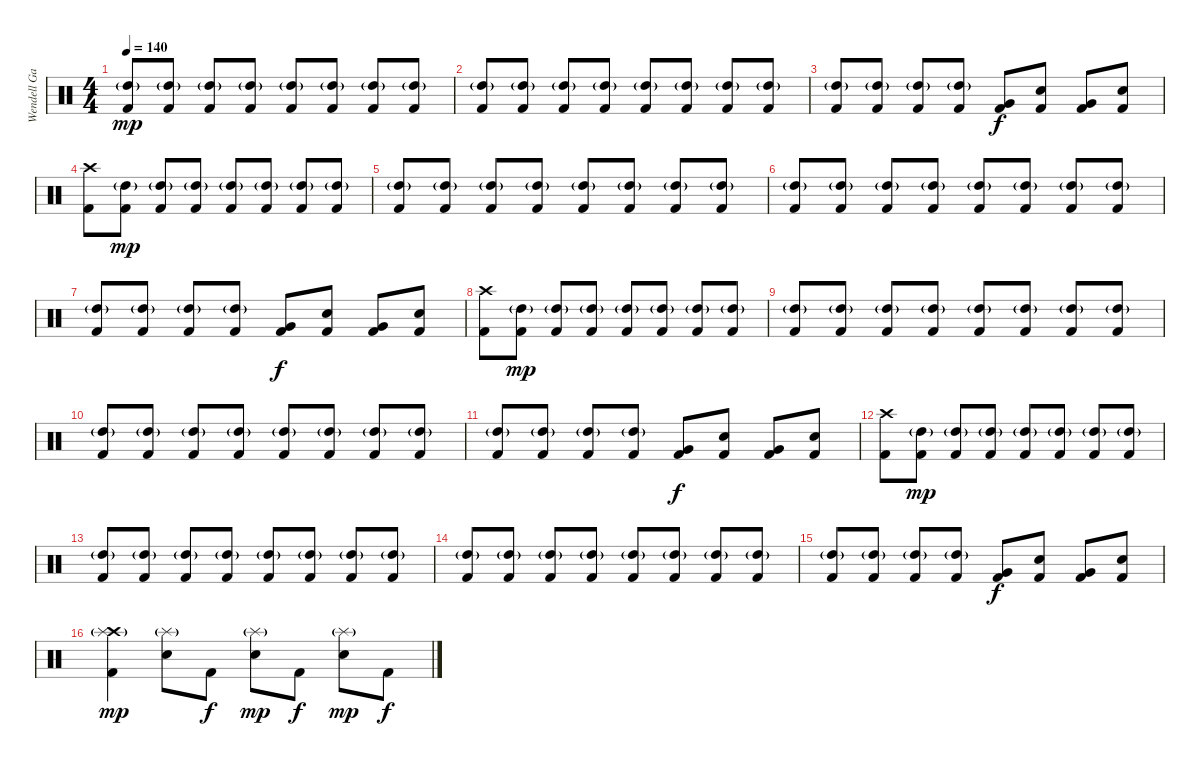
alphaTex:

\track ("Wendell Garcia(Drums)" "Wendell Ga") {instrument percussion}
\staff {score}
\articulation defaults
\ts (4 4)
\tempo 140
\clef neutral
\ks c
("High Tom (hit)"{g} "Kick (hit) 2").8{dy mp} ("High Tom (hit)"{g} "Kick (hit) 2").8 ("High Tom (hit)"{g} "Kick (hit) 2").8 ("High Tom (hit)"{g} "Kick (hit) 2").8 ("High Tom (hit)"{g} "Kick (hit) 2").8 ("High Tom (hit)"{g} "Kick (hit) 2").8 ("High Tom (hit)"{g} "Kick (hit) 2").8 ("High Tom (hit)"{g} "Kick (hit) 2").8 |
("High Tom (hit)"{g} "Kick (hit) 2").8 ("High Tom (hit)"{g} "Kick (hit) 2").8 ("High Tom (hit)"{g} "Kick (hit) 2").8 ("High Tom (hit)"{g} "Kick (hit) 2").8 ("High Tom (hit)"{g} "Kick (hit) 2").8 ("High Tom (hit)"{g} "Kick (hit) 2").8 ("High Tom (hit)"{g} "Kick (hit) 2").8 ("High Tom (hit)"{g} "Kick (hit) 2").8 |
("High Tom (hit)"{g} "Kick (hit) 2").8 ("High Tom (hit)"{g} "Kick (hit) 2").8 ("High Tom (hit)"{g} "Kick (hit) 2").8 ("High Tom (hit)"{g} "Kick (hit) 2").8 ("Very Low Tom (hit)" "Kick (hit) 2").8{dy f} ("Electric Snare (hit)" "Kick (hit) 2").8 ("Very Low Tom (hit)" "Kick (hit) 2").8 ("Electric Snare (hit)" "Kick (hit) 2").8 |
("Crash high (hit)" "Kick (hit) 2").8 ("High Tom (hit)"{g} "Kick (hit) 2").8{dy mp} ("High Tom (hit)"{g} "Kick (hit) 2").8 ("High Tom (hit)"{g} "Kick (hit) 2").8 ("High Tom (hit)"{g} "Kick (hit) 2").8 ("High Tom (hit)"{g} "Kick (hit) 2").8 ("High Tom (hit)"{g} "Kick (hit) 2").8 ("High Tom (hit)"{g} "Kick (hit) 2").8 |
("High Tom (hit)"{g} "Kick (hit) 2").8 ("High Tom (hit)"{g} "Kick (hit) 2").8 ("High Tom (hit)"{g} "Kick (hit) 2").8 ("High Tom (hit)"{g} "Kick (hit) 2").8 ("High Tom (hit)"{g} "Kick (hit) 2").8 ("High Tom (hit)"{g} "Kick (hit) 2").8 ("High Tom (hit)"{g} "Kick (hit) 2").8 ("High Tom (hit)"{g} "Kick (hit) 2").8 |
("High Tom (hit)"{g} "Kick (hit) 2").8 ("High Tom (hit)"{g} "Kick (hit) 2").8 ("High Tom (hit)"{g} "Kick (hit) 2").8 ("High Tom (hit)"{g} "Kick (hit) 2").8 ("High Tom (hit)"{g} "Kick (hit) 2").8 ("High Tom (hit)"{g} "Kick (hit) 2").8 ("High Tom (hit)"{g} "Kick (hit) 2").8 ("High Tom (hit)"{g} "Kick (hit) 2").8 |
("High Tom (hit)"{g} "Kick (hit) 2").8 ("High Tom (hit)"{g} "Kick (hit) 2").8 ("High Tom (hit)"{g} "Kick (hit) 2").8 ("High Tom (hit)"{g} "Kick (hit) 2").8 ("Very Low Tom (hit)" "Kick (hit) 2").8{dy f} ("Electric Snare (hit)" "Kick (hit) 2").8 ("Very Low Tom (hit)" "Kick (hit) 2").8 ("Electric Snare (hit)" "Kick (hit) 2").8 |
("Crash high (hit)" "Kick (hit) 2").8 ("High Tom (hit)"{g} "Kick (hit) 2").8{dy mp} ("High Tom (hit)"{g} "Kick (hit) 2").8 ("High Tom (hit)"{g} "Kick (hit) 2").8 ("High Tom (hit)"{g} "Kick (hit) 2").8 ("High Tom (hit)"{g} "Kick (hit) 2").8 ("High Tom (hit)"{g} "Kick (hit) 2").8 ("High Tom (hit)"{g} "Kick (hit) 2").8 |
("High Tom (hit)"{g} "Kick (hit) 2").8 ("High Tom (hit)"{g} "Kick (hit) 2").8 ("High Tom (hit)"{g} "Kick (hit) 2").8 ("High Tom (hit)"{g} "Kick (hit) 2").8 ("High Tom (hit)"{g} "Kick (hit) 2").8 ("High Tom (hit)"{g} "Kick (hit) 2").8 ("High Tom (hit)"{g} "Kick (hit) 2").8 ("High Tom (hit)"{g} "Kick (hit) 2").8 |
("High Tom (hit)"{g} "Kick (hit) 2").8 ("High Tom (hit)"{g} "Kick (hit) 2").8 ("High Tom (hit)"{g} "Kick (hit) 2").8 ("High Tom (hit)"{g} "Kick (hit) 2").8 ("High Tom (hit)"{g} "Kick (hit) 2").8 ("High Tom (hit)"{g} "Kick (hit) 2").8 ("High Tom (hit)"{g} "Kick (hit) 2").8 ("High Tom (hit)"{g} "Kick (hit) 2").8 |
("High Tom (hit)"{g} "Kick (hit) 2").8 ("High Tom (hit)"{g} "Kick (hit) 2").8 ("High Tom (hit)"{g} "Kick (hit) 2").8 ("High Tom (hit)"{g} "Kick (hit) 2").8 ("Very Low Tom (hit)" "Kick (hit) 2").8{dy f} ("Electric Snare (hit)" "Kick (hit) 2").8 ("Very Low Tom (hit)" "Kick (hit) 2").8 ("Electric Snare (hit)" "Kick (hit) 2").8 |
("Crash high (hit)" "Kick (hit) 2").8 ("High Tom (hit)"{g} "Kick (hit) 2").8{dy mp} ("High Tom (hit)"{g} "Kick (hit) 2").8 ("High Tom (hit)"{g} "Kick (hit) 2").8 ("High Tom (hit)"{g} "Kick (hit) 2").8 ("High Tom (hit)"{g} "Kick (hit) 2").8 ("High Tom (hit)"{g} "Kick (hit) 2").8 ("High Tom (hit)"{g} "Kick (hit) 2").8 |
("High Tom (hit)"{g} "Kick (hit) 2").8 ("High Tom (hit)"{g} "Kick (hit) 2").8 ("High Tom (hit)"{g} "Kick (hit) 2").8 ("High Tom (hit)"{g} "Kick (hit) 2").8 ("High Tom (hit)"{g} "Kick (hit) 2").8 ("High Tom (hit)"{g} "Kick (hit) 2").8 ("High Tom (hit)"{g} "Kick (hit) 2").8 ("High Tom (hit)"{g} "Kick (hit) 2").8 |
("High Tom (hit)"{g} "Kick (hit) 2").8 ("High Tom (hit)"{g} "Kick (hit) 2").8 ("High Tom (hit)"{g} "Kick (hit) 2").8 ("High Tom (hit)"{g} "Kick (hit) 2").8 ("High Tom (hit)"{g} "Kick (hit) 2").8 ("High Tom (hit)"{g} "Kick (hit) 2").8 ("High Tom (hit)"{g} "Kick (hit) 2").8 ("High Tom (hit)"{g} "Kick (hit) 2").8 |
("High Tom (hit)"{g} "Kick (hit) 2").8 ("High Tom (hit)"{g} "Kick (hit) 2").8 ("High Tom (hit)"{g} "Kick (hit) 2").8 ("High Tom (hit)"{g} "Kick (hit) 2").8 ("Very Low Tom (hit)" "Kick (hit) 2").8{dy f} ("Electric Snare (hit)" "Kick (hit) 2").8 ("Very Low Tom (hit)" "Kick (hit) 2").8 ("Electric Snare (hit)" "Kick (hit) 2").8 |
("Crash high (hit)" "Splash (hit)"{g} "Kick (hit) 2").4{dy mp} ("Splash (hit)"{g} "Electric Snare (hit)").8 "Kick (hit) 2".8{dy f} ("Splash (hit)"{g} "Electric Snare (hit)").8{dy mp} "Kick (hit) 2".8{dy f} ("Splash (hit)"{g} "Electric Snare (hit)").8{dy mp} "Kick (hit) 2".8{dy f}
